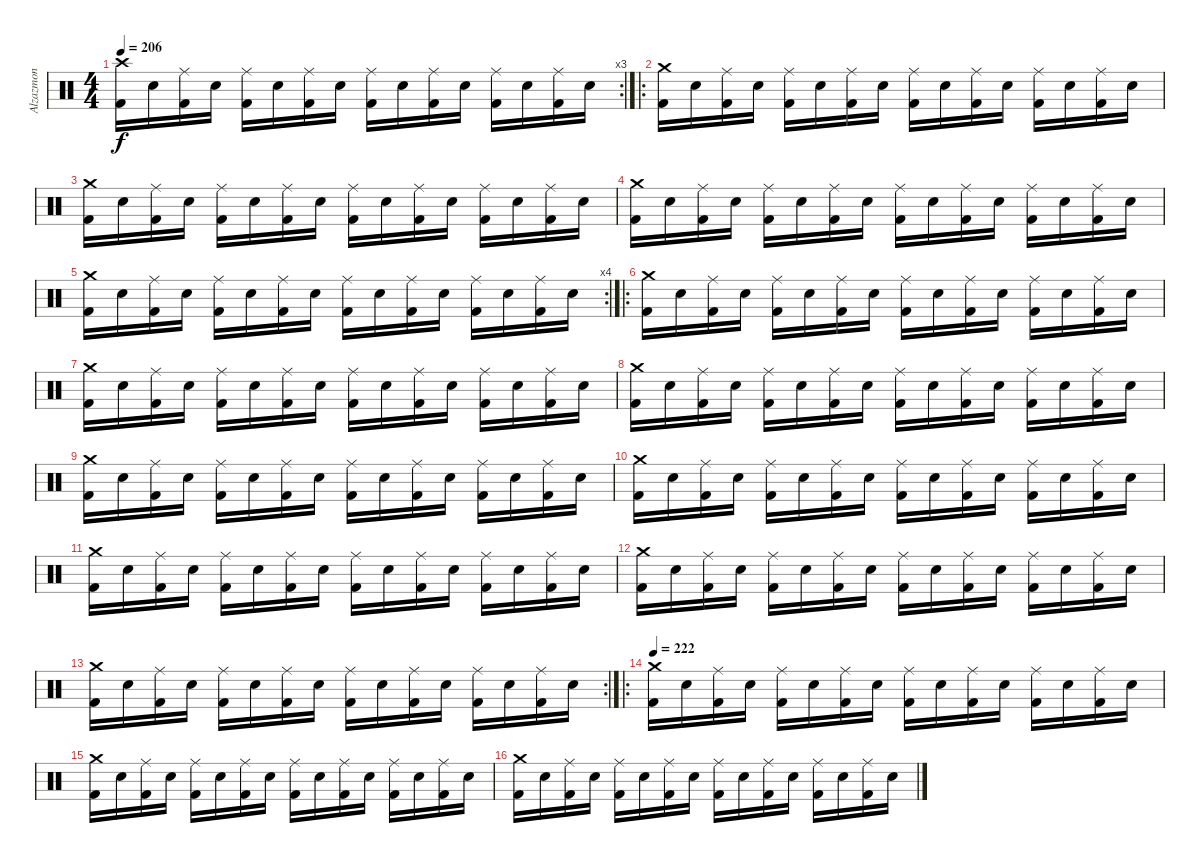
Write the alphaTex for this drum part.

\track ("Alzazmon" "Alzazmon") {instrument percussion}
\staff {score}
\articulation defaults
\rc 3
\ts (4 4)
\tempo 206
\clef neutral
\ks c
("Crash high (hit)" "Kick (hit) 2").16{dy f} "Snare (hit) 2".16 ("Ride (middle)" "Kick (hit) 2").16 "Snare (hit) 2".16 ("Ride (middle)" "Kick (hit) 2").16 "Snare (hit) 2".16 ("Ride (middle)" "Kick (hit) 2").16 "Snare (hit) 2".16 ("Ride (middle)" "Kick (hit) 2").16 "Snare (hit) 2".16 ("Ride (middle)" "Kick (hit) 2").16 "Snare (hit) 2".16 ("Ride (middle)" "Kick (hit) 2").16 "Snare (hit) 2".16 ("Ride (middle)" "Kick (hit) 2").16 "Snare (hit) 2".16 |
\ro
("Crash medium (hit)" "Kick (hit) 2").16 "Snare (hit) 2".16 ("Ride (middle)" "Kick (hit) 2").16 "Snare (hit) 2".16 ("Ride (middle)" "Kick (hit) 2").16 "Snare (hit) 2".16 ("Ride (middle)" "Kick (hit) 2").16 "Snare (hit) 2".16 ("Ride (middle)" "Kick (hit) 2").16 "Snare (hit) 2".16 ("Ride (middle)" "Kick (hit) 2").16 "Snare (hit) 2".16 ("Ride (middle)" "Kick (hit) 2").16 "Snare (hit) 2".16 ("Ride (middle)" "Kick (hit) 2").16 "Snare (hit) 2".16 |
("Crash medium (hit)" "Kick (hit) 2").16 "Snare (hit) 2".16 ("Ride (middle)" "Kick (hit) 2").16 "Snare (hit) 2".16 ("Ride (middle)" "Kick (hit) 2").16 "Snare (hit) 2".16 ("Ride (middle)" "Kick (hit) 2").16 "Snare (hit) 2".16 ("Ride (middle)" "Kick (hit) 2").16 "Snare (hit) 2".16 ("Ride (middle)" "Kick (hit) 2").16 "Snare (hit) 2".16 ("Ride (middle)" "Kick (hit) 2").16 "Snare (hit) 2".16 ("Ride (middle)" "Kick (hit) 2").16 "Snare (hit) 2".16 |
("Crash medium (hit)" "Kick (hit) 2").16 "Snare (hit) 2".16 ("Ride (middle)" "Kick (hit) 2").16 "Snare (hit) 2".16 ("Ride (middle)" "Kick (hit) 2").16 "Snare (hit) 2".16 ("Ride (middle)" "Kick (hit) 2").16 "Snare (hit) 2".16 ("Ride (middle)" "Kick (hit) 2").16 "Snare (hit) 2".16 ("Ride (middle)" "Kick (hit) 2").16 "Snare (hit) 2".16 ("Ride (middle)" "Kick (hit) 2").16 "Snare (hit) 2".16 ("Ride (middle)" "Kick (hit) 2").16 "Snare (hit) 2".16 |
\rc 4
("Crash medium (hit)" "Kick (hit) 2").16 "Snare (hit) 2".16 ("Ride (middle)" "Kick (hit) 2").16 "Snare (hit) 2".16 ("Ride (middle)" "Kick (hit) 2").16 "Snare (hit) 2".16 ("Ride (middle)" "Kick (hit) 2").16 "Snare (hit) 2".16 ("Ride (middle)" "Kick (hit) 2").16 "Snare (hit) 2".16 ("Ride (middle)" "Kick (hit) 2").16 "Snare (hit) 2".16 ("Ride (middle)" "Kick (hit) 2").16 "Snare (hit) 2".16 ("Ride (middle)" "Kick (hit) 2").16 "Snare (hit) 2".16 |
\ro
("Crash medium (hit)" "Kick (hit) 2").16 "Snare (hit) 2".16 ("Ride (middle)" "Kick (hit) 2").16 "Snare (hit) 2".16 ("Ride (middle)" "Kick (hit) 2").16 "Snare (hit) 2".16 ("Ride (middle)" "Kick (hit) 2").16 "Snare (hit) 2".16 ("Ride (middle)" "Kick (hit) 2").16 "Snare (hit) 2".16 ("Ride (middle)" "Kick (hit) 2").16 "Snare (hit) 2".16 ("Ride (middle)" "Kick (hit) 2").16 "Snare (hit) 2".16 ("Ride (middle)" "Kick (hit) 2").16 "Snare (hit) 2".16 |
("Crash medium (hit)" "Kick (hit) 2").16 "Snare (hit) 2".16 ("Ride (middle)" "Kick (hit) 2").16 "Snare (hit) 2".16 ("Ride (middle)" "Kick (hit) 2").16 "Snare (hit) 2".16 ("Ride (middle)" "Kick (hit) 2").16 "Snare (hit) 2".16 ("Ride (middle)" "Kick (hit) 2").16 "Snare (hit) 2".16 ("Ride (middle)" "Kick (hit) 2").16 "Snare (hit) 2".16 ("Ride (middle)" "Kick (hit) 2").16 "Snare (hit) 2".16 ("Ride (middle)" "Kick (hit) 2").16 "Snare (hit) 2".16 |
("Crash medium (hit)" "Kick (hit) 2").16 "Snare (hit) 2".16 ("Ride (middle)" "Kick (hit) 2").16 "Snare (hit) 2".16 ("Ride (middle)" "Kick (hit) 2").16 "Snare (hit) 2".16 ("Ride (middle)" "Kick (hit) 2").16 "Snare (hit) 2".16 ("Ride (middle)" "Kick (hit) 2").16 "Snare (hit) 2".16 ("Ride (middle)" "Kick (hit) 2").16 "Snare (hit) 2".16 ("Ride (middle)" "Kick (hit) 2").16 "Snare (hit) 2".16 ("Ride (middle)" "Kick (hit) 2").16 "Snare (hit) 2".16 |
("Crash medium (hit)" "Kick (hit) 2").16 "Snare (hit) 2".16 ("Ride (middle)" "Kick (hit) 2").16 "Snare (hit) 2".16 ("Ride (middle)" "Kick (hit) 2").16 "Snare (hit) 2".16 ("Ride (middle)" "Kick (hit) 2").16 "Snare (hit) 2".16 ("Ride (middle)" "Kick (hit) 2").16 "Snare (hit) 2".16 ("Ride (middle)" "Kick (hit) 2").16 "Snare (hit) 2".16 ("Ride (middle)" "Kick (hit) 2").16 "Snare (hit) 2".16 ("Ride (middle)" "Kick (hit) 2").16 "Snare (hit) 2".16 |
("Crash medium (hit)" "Kick (hit) 2").16 "Snare (hit) 2".16 ("Ride (middle)" "Kick (hit) 2").16 "Snare (hit) 2".16 ("Ride (middle)" "Kick (hit) 2").16 "Snare (hit) 2".16 ("Ride (middle)" "Kick (hit) 2").16 "Snare (hit) 2".16 ("Ride (middle)" "Kick (hit) 2").16 "Snare (hit) 2".16 ("Ride (middle)" "Kick (hit) 2").16 "Snare (hit) 2".16 ("Ride (middle)" "Kick (hit) 2").16 "Snare (hit) 2".16 ("Ride (middle)" "Kick (hit) 2").16 "Snare (hit) 2".16 |
("Crash medium (hit)" "Kick (hit) 2").16 "Snare (hit) 2".16 ("Ride (middle)" "Kick (hit) 2").16 "Snare (hit) 2".16 ("Ride (middle)" "Kick (hit) 2").16 "Snare (hit) 2".16 ("Ride (middle)" "Kick (hit) 2").16 "Snare (hit) 2".16 ("Ride (middle)" "Kick (hit) 2").16 "Snare (hit) 2".16 ("Ride (middle)" "Kick (hit) 2").16 "Snare (hit) 2".16 ("Ride (middle)" "Kick (hit) 2").16 "Snare (hit) 2".16 ("Ride (middle)" "Kick (hit) 2").16 "Snare (hit) 2".16 |
("Crash medium (hit)" "Kick (hit) 2").16 "Snare (hit) 2".16 ("Ride (middle)" "Kick (hit) 2").16 "Snare (hit) 2".16 ("Ride (middle)" "Kick (hit) 2").16 "Snare (hit) 2".16 ("Ride (middle)" "Kick (hit) 2").16 "Snare (hit) 2".16 ("Ride (middle)" "Kick (hit) 2").16 "Snare (hit) 2".16 ("Ride (middle)" "Kick (hit) 2").16 "Snare (hit) 2".16 ("Ride (middle)" "Kick (hit) 2").16 "Snare (hit) 2".16 ("Ride (middle)" "Kick (hit) 2").16 "Snare (hit) 2".16 |
\rc 2
("Crash medium (hit)" "Kick (hit) 2").16 "Snare (hit) 2".16 ("Ride (middle)" "Kick (hit) 2").16 "Snare (hit) 2".16 ("Ride (middle)" "Kick (hit) 2").16 "Snare (hit) 2".16 ("Ride (middle)" "Kick (hit) 2").16 "Snare (hit) 2".16 ("Ride (middle)" "Kick (hit) 2").16 "Snare (hit) 2".16 ("Ride (middle)" "Kick (hit) 2").16 "Snare (hit) 2".16 ("Ride (middle)" "Kick (hit) 2").16 "Snare (hit) 2".16 ("Ride (middle)" "Kick (hit) 2").16 "Snare (hit) 2".16 |
\ro
\tempo 222
("Crash medium (hit)" "Kick (hit) 2").16 "Snare (hit) 2".16 ("Ride (middle)" "Kick (hit) 2").16 "Snare (hit) 2".16 ("Ride (middle)" "Kick (hit) 2").16 "Snare (hit) 2".16 ("Ride (middle)" "Kick (hit) 2").16 "Snare (hit) 2".16 ("Ride (middle)" "Kick (hit) 2").16 "Snare (hit) 2".16 ("Ride (middle)" "Kick (hit) 2").16 "Snare (hit) 2".16 ("Ride (middle)" "Kick (hit) 2").16 "Snare (hit) 2".16 ("Ride (middle)" "Kick (hit) 2").16 "Snare (hit) 2".16 |
("Crash medium (hit)" "Kick (hit) 2").16 "Snare (hit) 2".16 ("Ride (middle)" "Kick (hit) 2").16 "Snare (hit) 2".16 ("Ride (middle)" "Kick (hit) 2").16 "Snare (hit) 2".16 ("Ride (middle)" "Kick (hit) 2").16 "Snare (hit) 2".16 ("Ride (middle)" "Kick (hit) 2").16 "Snare (hit) 2".16 ("Ride (middle)" "Kick (hit) 2").16 "Snare (hit) 2".16 ("Ride (middle)" "Kick (hit) 2").16 "Snare (hit) 2".16 ("Ride (middle)" "Kick (hit) 2").16 "Snare (hit) 2".16 |
("Crash medium (hit)" "Kick (hit) 2").16 "Snare (hit) 2".16 ("Ride (middle)" "Kick (hit) 2").16 "Snare (hit) 2".16 ("Ride (middle)" "Kick (hit) 2").16 "Snare (hit) 2".16 ("Ride (middle)" "Kick (hit) 2").16 "Snare (hit) 2".16 ("Ride (middle)" "Kick (hit) 2").16 "Snare (hit) 2".16 ("Ride (middle)" "Kick (hit) 2").16 "Snare (hit) 2".16 ("Ride (middle)" "Kick (hit) 2").16 "Snare (hit) 2".16 ("Ride (middle)" "Kick (hit) 2").16 "Snare (hit) 2".16
